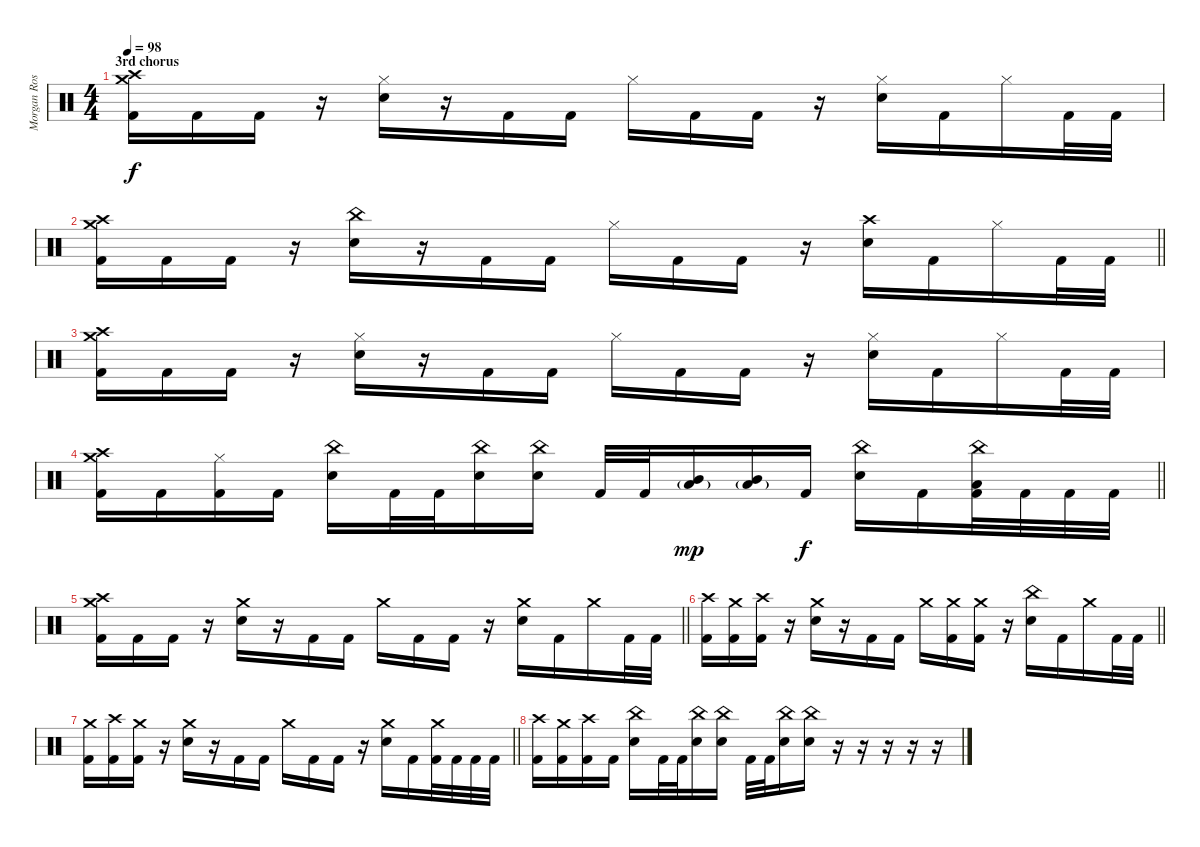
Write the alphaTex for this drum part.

\track ("Morgan Rose" "Morgan Ros") {instrument percussion}
\staff {score}
\articulation defaults
\ts (4 4)
\section ("" "3rd chorus")
\tempo 98
\clef neutral
\ks c
("Crash medium (hit)" "Crash high (hit)" "Kick (hit) 2").16{dy f} "Kick (hit) 2".16 "Kick (hit) 2".16 r.16 ("Hi-Hat (closed)" "Snare (hit) 2").16 r.16 "Kick (hit) 2".16 "Kick (hit) 2".16 "Hi-Hat (closed)".16 "Kick (hit) 2".16 "Kick (hit) 2".16 r.16 ("Hi-Hat (closed)" "Snare (hit) 2").16 "Kick (hit) 2".16 "Hi-Hat (closed)".16 "Kick (hit) 2".32 "Kick (hit) 2".32 |
\barLineRight lightlight
("Crash medium (hit)" "Crash high (hit)" "Kick (hit) 2").16 "Kick (hit) 2".16 "Kick (hit) 2".16 r.16 ("China (hit)" "Snare (hit) 2").16 r.16 "Kick (hit) 2".16 "Kick (hit) 2".16 "Hi-Hat (closed)".16 "Kick (hit) 2".16 "Kick (hit) 2".16 r.16 ("Crash high (hit)" "Snare (hit) 2").16 "Kick (hit) 2".16 "Hi-Hat (closed)".16 "Kick (hit) 2".32 "Kick (hit) 2".32 |
("Crash medium (hit)" "Crash high (hit)" "Kick (hit) 2").16 "Kick (hit) 2".16 "Kick (hit) 2".16 r.16 ("Hi-Hat (closed)" "Snare (hit) 2").16 r.16 "Kick (hit) 2".16 "Kick (hit) 2".16 "Hi-Hat (closed)".16 "Kick (hit) 2".16 "Kick (hit) 2".16 r.16 ("Hi-Hat (closed)" "Snare (hit) 2").16 "Kick (hit) 2".16 "Hi-Hat (closed)".16 "Kick (hit) 2".32 "Kick (hit) 2".32 |
\barLineRight lightlight
("Crash medium (hit)" "Crash high (hit)" "Kick (hit) 2").16 "Kick (hit) 2".16 ("Hi-Hat (closed)" "Kick (hit) 2").16 "Kick (hit) 2".16 ("China (hit)" "Snare (hit) 2").16 "Kick (hit) 2".32 "Kick (hit) 2".32 ("China (hit)" "Snare (hit) 2").16 ("China (hit)" "Snare (hit) 2").16 "Kick (hit) 2".32 "Kick (hit) 2".32 ("Mid Tom (hit)" "Low Tom (hit)"{g}).16{dy mp} ("Mid Tom (hit)" "Low Tom (hit)"{g}).16 "Kick (hit) 2".16{dy f} ("China (hit)" "Snare (hit) 2").16 "Kick (hit) 2".16 ("China (hit)" "Low Tom (hit)" "Kick (hit) 2").32 "Kick (hit) 2".32 "Kick (hit) 2".32 "Kick (hit) 2".32 |
\barLineRight lightlight
("Crash medium (hit)" "Crash high (hit)" "Kick (hit) 2").16 "Kick (hit) 2".16 "Kick (hit) 2".16 r.16 ("Crash medium (hit)" "Snare (hit) 2").16 r.16 "Kick (hit) 2".16 "Kick (hit) 2".16 "Crash medium (hit)".16 "Kick (hit) 2".16 "Kick (hit) 2".16 r.16 ("Crash medium (hit)" "Snare (hit) 2").16 "Kick (hit) 2".16 "Crash medium (hit)".16 "Kick (hit) 2".32 "Kick (hit) 2".32 |
\barLineRight lightlight
("Crash high (hit)" "Kick (hit) 2").16 ("Crash medium (hit)" "Kick (hit) 2").16 ("Crash high (hit)" "Kick (hit) 2").16 r.16 ("Crash medium (hit)" "Snare (hit) 2").16 r.16 "Kick (hit) 2".16 "Kick (hit) 2".16 "Crash medium (hit)".16 ("Crash medium (hit)" "Kick (hit) 2").16 ("Crash medium (hit)" "Kick (hit) 2").16 r.16 ("China (hit)" "Snare (hit) 2").16 "Kick (hit) 2".16 "Crash medium (hit)".16 "Kick (hit) 2".32 "Kick (hit) 2".32 |
\barLineRight lightlight
("Crash medium (hit)" "Kick (hit) 2").16 ("Crash high (hit)" "Kick (hit) 2").16 ("Crash medium (hit)" "Kick (hit) 2").16 r.16 ("Crash medium (hit)" "Snare (hit) 2").16 r.16 "Kick (hit) 2".16 "Kick (hit) 2".16 "Crash medium (hit)".16 "Kick (hit) 2".16 "Kick (hit) 2".16 r.16 ("Crash medium (hit)" "Snare (hit) 2").16 "Kick (hit) 2".16 ("Crash medium (hit)" "Kick (hit) 2").32 "Kick (hit) 2".32 "Kick (hit) 2".32 "Kick (hit) 2".32 |
("Crash high (hit)" "Kick (hit) 2").16 ("Crash medium (hit)" "Kick (hit) 2").16 ("Crash high (hit)" "Kick (hit) 2").16 "Kick (hit) 2".16 ("China (hit)" "Snare (hit) 2").16 "Kick (hit) 2".32 "Kick (hit) 2".32 ("China (hit)" "Snare (hit) 2").16 ("China (hit)" "Snare (hit) 2").16 "Kick (hit) 2".32 "Kick (hit) 2".32 ("China (hit)" "Snare (hit) 2").16 ("China (hit)" "Snare (hit) 2").16 r.16 r.16 r.16 r.16 r.16
